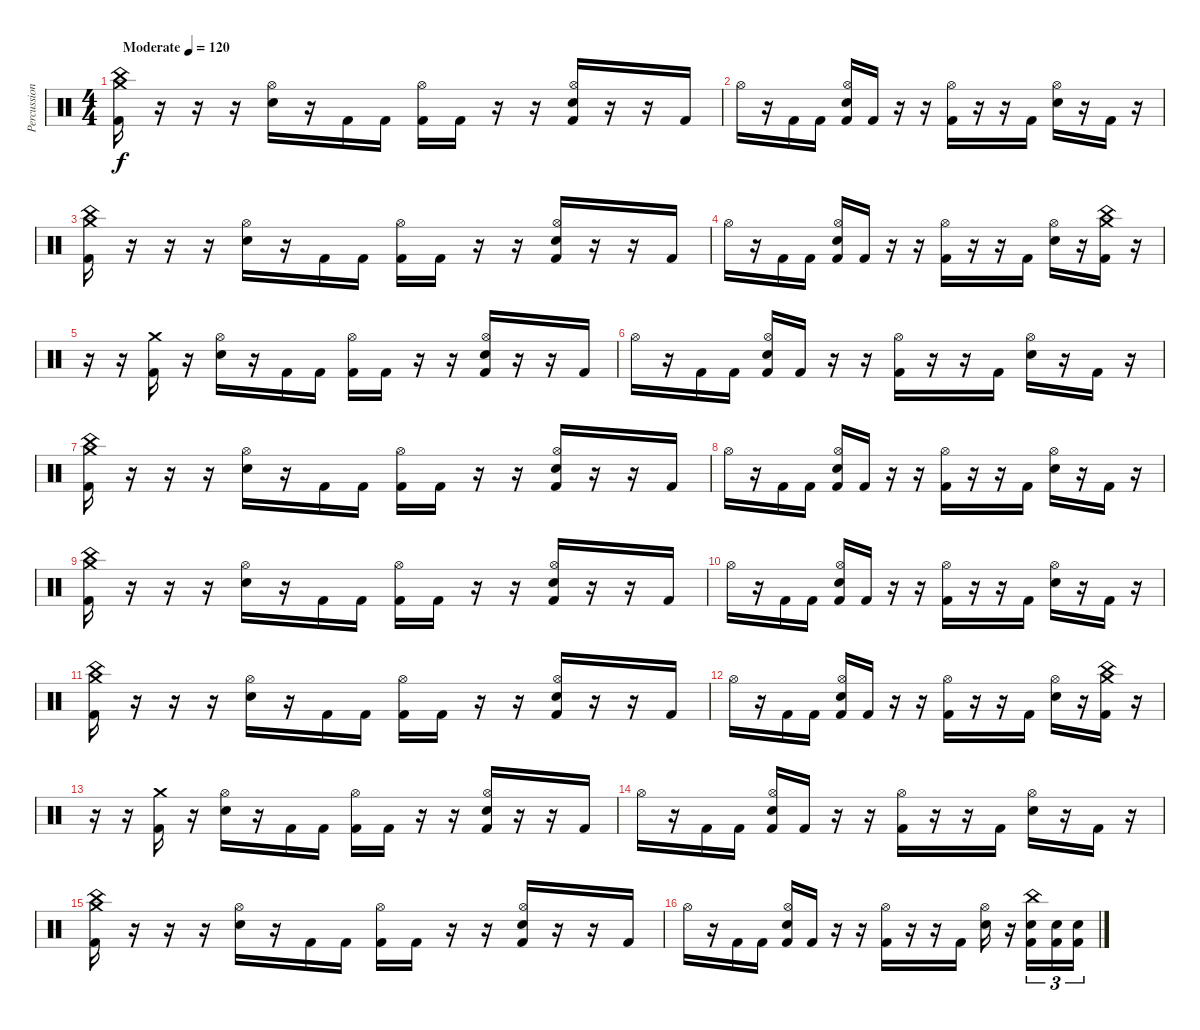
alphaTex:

\track ("Percussion" "Percussion") {instrument percussion}
\staff {score}
\articulation defaults
\ts (4 4)
\tempo (120 "Moderate")
\clef neutral
\ks c
("Crash medium (hit)" "China (hit)" "Kick (hit) 2").16{dy f} r.16 r.16 r.16 ("Hi-Hat (open)" "Electric Snare (hit)").16 r.16 "Kick (hit) 2".16 "Kick (hit) 2".16 ("Hi-Hat (open)" "Kick (hit) 2").16 "Kick (hit) 2".16 r.16 r.16 ("Hi-Hat (open)" "Electric Snare (hit)" "Kick (hit) 2").16 r.16 r.16 "Kick (hit) 2".16 |
"Hi-Hat (open)".16 r.16 "Kick (hit) 2".16 "Kick (hit) 2".16 ("Hi-Hat (open)" "Electric Snare (hit)" "Kick (hit) 2").16 "Kick (hit) 2".16 r.16 r.16 ("Hi-Hat (open)" "Kick (hit) 2").16 r.16 r.16 "Kick (hit) 2".16 ("Hi-Hat (open)" "Electric Snare (hit)").16 r.16 "Kick (hit) 2".16 r.16 |
("Crash medium (hit)" "China (hit)" "Kick (hit) 2").16 r.16 r.16 r.16 ("Hi-Hat (open)" "Electric Snare (hit)").16 r.16 "Kick (hit) 2".16 "Kick (hit) 2".16 ("Hi-Hat (open)" "Kick (hit) 2").16 "Kick (hit) 2".16 r.16 r.16 ("Hi-Hat (open)" "Electric Snare (hit)" "Kick (hit) 2").16 r.16 r.16 "Kick (hit) 2".16 |
"Hi-Hat (open)".16 r.16 "Kick (hit) 2".16 "Kick (hit) 2".16 ("Hi-Hat (open)" "Electric Snare (hit)" "Kick (hit) 2").16 "Kick (hit) 2".16 r.16 r.16 ("Hi-Hat (open)" "Kick (hit) 2").16 r.16 r.16 "Kick (hit) 2".16 ("Hi-Hat (open)" "Electric Snare (hit)").16 r.16 ("China (hit)" "Crash medium (hit)" "Kick (hit) 2").16 r.16 |
r.16 r.16 ("Crash medium (hit)" "Kick (hit) 2").16 r.16 ("Hi-Hat (open)" "Electric Snare (hit)").16 r.16 "Kick (hit) 2".16 "Kick (hit) 2".16 ("Hi-Hat (open)" "Kick (hit) 2").16 "Kick (hit) 2".16 r.16 r.16 ("Hi-Hat (open)" "Electric Snare (hit)" "Kick (hit) 2").16 r.16 r.16 "Kick (hit) 2".16 |
"Hi-Hat (open)".16 r.16 "Kick (hit) 2".16 "Kick (hit) 2".16 ("Hi-Hat (open)" "Electric Snare (hit)" "Kick (hit) 2").16 "Kick (hit) 2".16 r.16 r.16 ("Hi-Hat (open)" "Kick (hit) 2").16 r.16 r.16 "Kick (hit) 2".16 ("Hi-Hat (open)" "Electric Snare (hit)").16 r.16 "Kick (hit) 2".16 r.16 |
("Crash medium (hit)" "China (hit)" "Kick (hit) 2").16 r.16 r.16 r.16 ("Hi-Hat (open)" "Electric Snare (hit)").16 r.16 "Kick (hit) 2".16 "Kick (hit) 2".16 ("Hi-Hat (open)" "Kick (hit) 2").16 "Kick (hit) 2".16 r.16 r.16 ("Hi-Hat (open)" "Electric Snare (hit)" "Kick (hit) 2").16 r.16 r.16 "Kick (hit) 2".16 |
"Hi-Hat (open)".16 r.16 "Kick (hit) 2".16 "Kick (hit) 2".16 ("Hi-Hat (open)" "Electric Snare (hit)" "Kick (hit) 2").16 "Kick (hit) 2".16 r.16 r.16 ("Hi-Hat (open)" "Kick (hit) 2").16 r.16 r.16 "Kick (hit) 2".16 ("Hi-Hat (open)" "Electric Snare (hit)").16 r.16 "Kick (hit) 2".16 r.16 |
("Crash medium (hit)" "China (hit)" "Kick (hit) 2").16 r.16 r.16 r.16 ("Hi-Hat (open)" "Electric Snare (hit)").16 r.16 "Kick (hit) 2".16 "Kick (hit) 2".16 ("Hi-Hat (open)" "Kick (hit) 2").16 "Kick (hit) 2".16 r.16 r.16 ("Hi-Hat (open)" "Electric Snare (hit)" "Kick (hit) 2").16 r.16 r.16 "Kick (hit) 2".16 |
"Hi-Hat (open)".16 r.16 "Kick (hit) 2".16 "Kick (hit) 2".16 ("Hi-Hat (open)" "Electric Snare (hit)" "Kick (hit) 2").16 "Kick (hit) 2".16 r.16 r.16 ("Hi-Hat (open)" "Kick (hit) 2").16 r.16 r.16 "Kick (hit) 2".16 ("Hi-Hat (open)" "Electric Snare (hit)").16 r.16 "Kick (hit) 2".16 r.16 |
("Crash medium (hit)" "China (hit)" "Kick (hit) 2").16 r.16 r.16 r.16 ("Hi-Hat (open)" "Electric Snare (hit)").16 r.16 "Kick (hit) 2".16 "Kick (hit) 2".16 ("Hi-Hat (open)" "Kick (hit) 2").16 "Kick (hit) 2".16 r.16 r.16 ("Hi-Hat (open)" "Electric Snare (hit)" "Kick (hit) 2").16 r.16 r.16 "Kick (hit) 2".16 |
"Hi-Hat (open)".16 r.16 "Kick (hit) 2".16 "Kick (hit) 2".16 ("Hi-Hat (open)" "Electric Snare (hit)" "Kick (hit) 2").16 "Kick (hit) 2".16 r.16 r.16 ("Hi-Hat (open)" "Kick (hit) 2").16 r.16 r.16 "Kick (hit) 2".16 ("Hi-Hat (open)" "Electric Snare (hit)").16 r.16 ("China (hit)" "Crash medium (hit)" "Kick (hit) 2").16 r.16 |
r.16 r.16 ("Crash medium (hit)" "Kick (hit) 2").16 r.16 ("Hi-Hat (open)" "Electric Snare (hit)").16 r.16 "Kick (hit) 2".16 "Kick (hit) 2".16 ("Hi-Hat (open)" "Kick (hit) 2").16 "Kick (hit) 2".16 r.16 r.16 ("Hi-Hat (open)" "Electric Snare (hit)" "Kick (hit) 2").16 r.16 r.16 "Kick (hit) 2".16 |
"Hi-Hat (open)".16 r.16 "Kick (hit) 2".16 "Kick (hit) 2".16 ("Hi-Hat (open)" "Electric Snare (hit)" "Kick (hit) 2").16 "Kick (hit) 2".16 r.16 r.16 ("Hi-Hat (open)" "Kick (hit) 2").16 r.16 r.16 "Kick (hit) 2".16 ("Hi-Hat (open)" "Electric Snare (hit)").16 r.16 "Kick (hit) 2".16 r.16 |
("Crash medium (hit)" "China (hit)" "Kick (hit) 2").16 r.16 r.16 r.16 ("Hi-Hat (open)" "Electric Snare (hit)").16 r.16 "Kick (hit) 2".16 "Kick (hit) 2".16 ("Hi-Hat (open)" "Kick (hit) 2").16 "Kick (hit) 2".16 r.16 r.16 ("Hi-Hat (open)" "Electric Snare (hit)" "Kick (hit) 2").16 r.16 r.16 "Kick (hit) 2".16 |
"Hi-Hat (open)".16 r.16 "Kick (hit) 2".16 "Kick (hit) 2".16 ("Hi-Hat (open)" "Electric Snare (hit)" "Kick (hit) 2").16 "Kick (hit) 2".16 r.16 r.16 ("Hi-Hat (open)" "Kick (hit) 2").16 r.16 r.16 "Kick (hit) 2".16 ("Hi-Hat (open)" "Electric Snare (hit)").16 r.16 ("China (hit)" "Electric Snare (hit)" "Kick (hit) 2").16{tu (3 2)} ("Electric Snare (hit)" "Kick (hit) 2").16{tu (3 2)} ("Electric Snare (hit)" "Kick (hit) 2").16{tu (3 2)}
